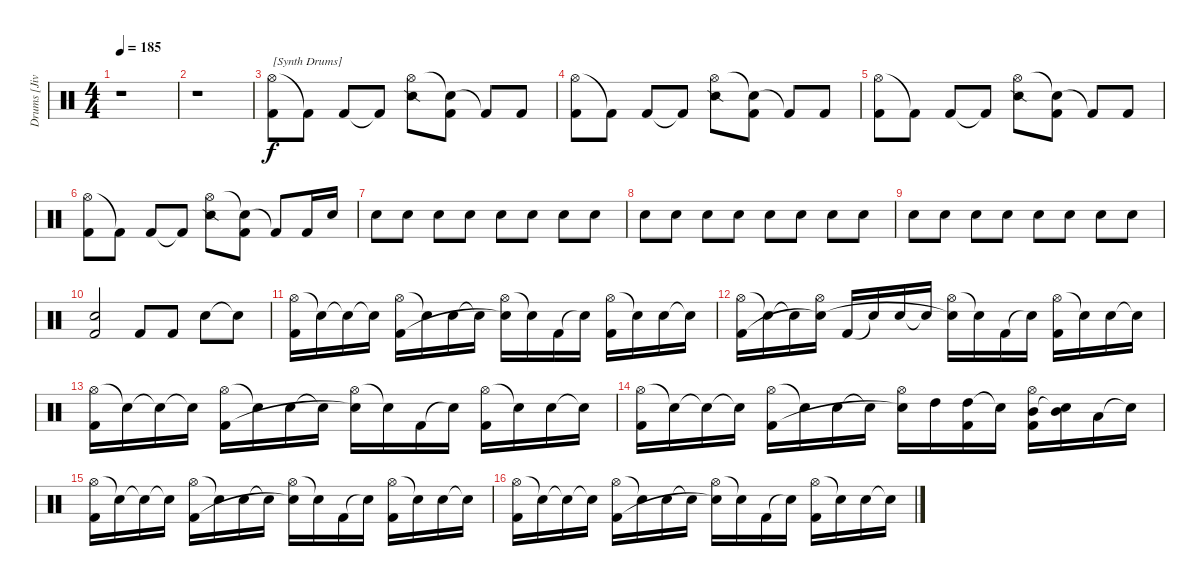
\track ("Drums [Jivarp]" "Drums [Jiv") {instrument percussion}
\staff {score}
\articulation defaults
\ts (4 4)
\tempo 185
\clef neutral
\ks c
r.1{dy f} |
r.1 |
("Hi-Hat (open)" "Kick (hit) 2").8{txt "[Synth Drums]"} "Kick (hit) 2"{t}.8 "Kick (hit) 2".8 "Kick (hit) 2"{t}.8 ("Hi-Hat (open)" "Snare (side stick) 2").8 ("Snare (hit)"{t} "Kick (hit) 2").8 "Kick (hit) 2"{t}.8 "Kick (hit) 2".8 |
("Hi-Hat (open)" "Kick (hit) 2").8 "Kick (hit) 2"{t}.8 "Kick (hit) 2".8 "Kick (hit) 2"{t}.8 ("Hi-Hat (open)" "Snare (side stick) 2").8 ("Snare (hit)"{t} "Kick (hit) 2").8 "Kick (hit) 2"{t}.8 "Kick (hit) 2".8 |
("Hi-Hat (open)" "Kick (hit) 2").8 "Kick (hit) 2"{t}.8 "Kick (hit) 2".8 "Kick (hit) 2"{t}.8 ("Hi-Hat (open)" "Snare (side stick) 2").8 ("Snare (hit)"{t} "Kick (hit) 2").8 "Kick (hit) 2"{t}.8 "Kick (hit) 2".8 |
("Hi-Hat (open)" "Kick (hit) 2").8 "Kick (hit) 2"{t}.8 "Kick (hit) 2".8 "Kick (hit) 2"{t}.8 ("Hi-Hat (open)" "Snare (side stick) 2").8 ("Snare (hit)"{t} "Kick (hit) 2").8 "Kick (hit) 2"{t}.8 "Kick (hit) 2".16 "Electric Snare (hit)".16 |
"Electric Snare (hit)".8{volume 2} "Electric Snare (hit)".8{volume 14} "Electric Snare (hit)".8 "Electric Snare (hit)".8 "Electric Snare (hit)".8 "Electric Snare (hit)".8 "Electric Snare (hit)".8 "Electric Snare (hit)".8 |
"Electric Snare (hit)".8 "Electric Snare (hit)".8 "Electric Snare (hit)".8 "Electric Snare (hit)".8 "Electric Snare (hit)".8 "Electric Snare (hit)".8 "Electric Snare (hit)".8 "Electric Snare (hit)".8 |
"Electric Snare (hit)".8 "Electric Snare (hit)".8 "Electric Snare (hit)".8 "Electric Snare (hit)".8 "Electric Snare (hit)".8 "Electric Snare (hit)".8 "Electric Snare (hit)".8 "Electric Snare (hit)".8 |
("Electric Snare (hit)" "Kick (hit) 2").2 "Kick (hit) 2".8 "Kick (hit) 2".8 "Electric Snare (hit)".8 "Snare (hit)"{t}.8 |
("Hi-Hat (open)" "Kick (hit) 2").16 "Snare (hit)"{t}.16 "Snare (hit)"{t}.16 "Snare (hit)"{t}.16 ("Hi-Hat (open)" "Kick (hit) 2").16 "Snare (hit)"{t}.16 "Electric Snare (hit)".16 "Snare (hit)"{t}.16 ("Hi-Hat (open)" "Snare (hit)"{t}).16 "Snare (hit)"{t}.16 "Kick (hit) 2".16 "Snare (hit)"{t}.16 ("Hi-Hat (open)" "Kick (hit) 2").16 "Snare (hit)"{t}.16 "Electric Snare (hit)".16 "Snare (hit)"{t}.16 |
("Hi-Hat (open)" "Kick (hit) 2").16 "Snare (hit)"{t}.16 "Snare (hit)"{t}.16 ("Hi-Hat (open)" "Snare (hit)"{t}).16 "Kick (hit) 2".16 "Snare (hit)"{t}.16 "Electric Snare (hit)".16 "Snare (hit)"{t}.16 ("Hi-Hat (open)" "Snare (hit)"{t}).16 "Snare (hit)"{t}.16 "Kick (hit) 2".16 "Snare (hit)"{t}.16 ("Hi-Hat (open)" "Kick (hit) 2").16 "Snare (hit)"{t}.16 "Electric Snare (hit)".16 "Snare (hit)"{t}.16 |
("Hi-Hat (open)" "Kick (hit) 2").16 "Snare (hit)"{t}.16 "Snare (hit)"{t}.16 "Snare (hit)"{t}.16 ("Hi-Hat (open)" "Kick (hit) 2").16 "Snare (hit)"{t}.16 "Electric Snare (hit)".16 "Snare (hit)"{t}.16 ("Hi-Hat (open)" "Snare (hit)"{t}).16 "Snare (hit)"{t}.16 "Kick (hit) 2".16 "Snare (hit)"{t}.16 ("Hi-Hat (open)" "Kick (hit) 2").16 "Snare (hit)"{t}.16 "Electric Snare (hit)".16 "Snare (hit)"{t}.16 |
("Hi-Hat (open)" "Kick (hit) 2").16 "Snare (hit)"{t}.16 "Snare (hit)"{t}.16 "Snare (hit)"{t}.16 ("Hi-Hat (open)" "Kick (hit) 2").16 "Snare (hit)"{t}.16 "Electric Snare (hit)".16 "Snare (hit)"{t}.16 ("Hi-Hat (open)" "Snare (hit)"{t}).16 "High Tom (hit)".16 ("High Tom (hit)" "Kick (hit) 2").16 "Snare (hit)"{t}.16 ("Hi-Hat (open)" "Mid Tom (hit)" "Kick (hit) 2").16 ("Mid Tom (hit)" "Snare (hit)"{t}).16 "Low Tom (hit)".16 "Snare (hit)"{t}.16 |
("Hi-Hat (open)" "Kick (hit) 2").16 "Snare (hit)"{t}.16 "Snare (hit)"{t}.16 "Snare (hit)"{t}.16 ("Hi-Hat (open)" "Kick (hit) 2").16 "Snare (hit)"{t}.16 "Electric Snare (hit)".16 "Snare (hit)"{t}.16 ("Hi-Hat (open)" "Snare (hit)"{t}).16 "Snare (hit)"{t}.16 "Kick (hit) 2".16 "Snare (hit)"{t}.16 ("Hi-Hat (open)" "Kick (hit) 2").16 "Snare (hit)"{t}.16 "Electric Snare (hit)".16 "Snare (hit)"{t}.16 |
("Hi-Hat (open)" "Kick (hit) 2").16 "Snare (hit)"{t}.16 "Snare (hit)"{t}.16 "Snare (hit)"{t}.16 ("Hi-Hat (open)" "Kick (hit) 2").16 "Snare (hit)"{t}.16 "Electric Snare (hit)".16 "Snare (hit)"{t}.16 ("Hi-Hat (open)" "Snare (hit)"{t}).16 "Snare (hit)"{t}.16 "Kick (hit) 2".16 "Snare (hit)"{t}.16 ("Hi-Hat (open)" "Kick (hit) 2").16 "Snare (hit)"{t}.16 "Electric Snare (hit)".16 "Snare (hit)"{t}.16
